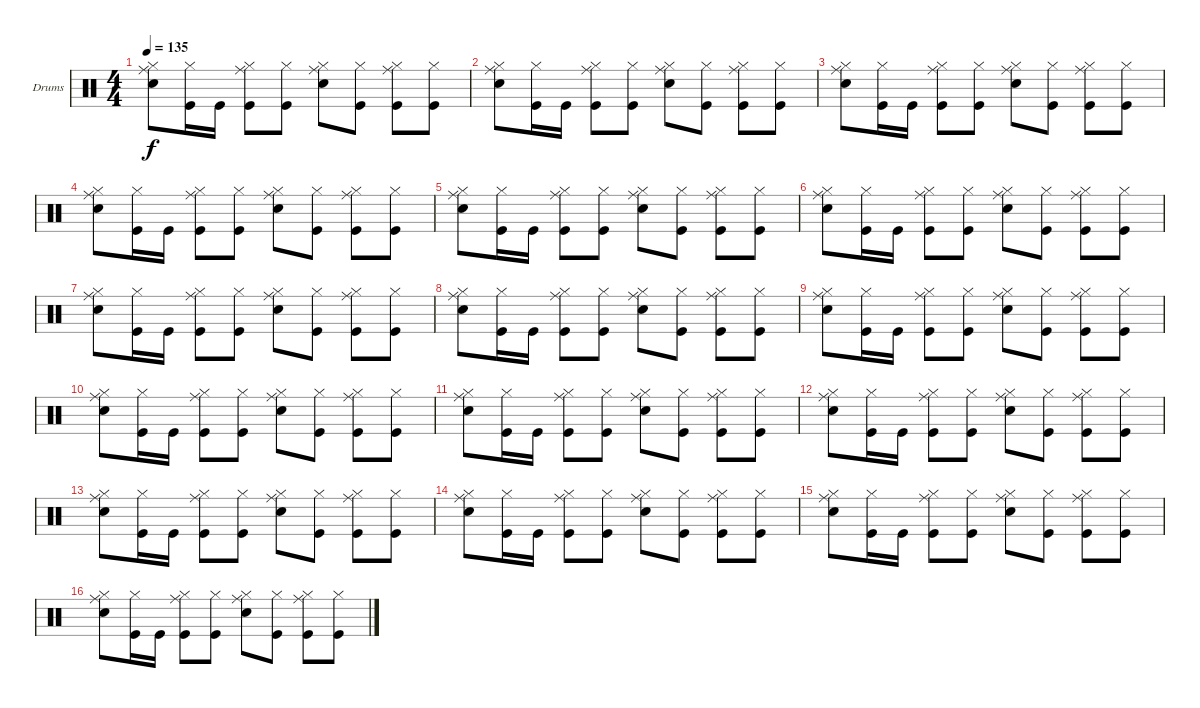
\defaultSystemsLayout 4
\bracketExtendMode groupsimilarinstruments
\firstSystemTrackNameOrientation horizontal
\otherSystemsTrackNameOrientation horizontal
\track ("Drumkit" "Drums") {instrument percussion}
\staff {score}
\articulation defaults
\ts (4 4)
\tempo 135
\clef neutral
\ks c
("Snare (hit) 2" "Hi-Hat (closed)" "Ride (middle)").8{dy f} ("Kick (hit)" "Hi-Hat (closed)").16 "Kick (hit)".16 ("Kick (hit)" "Hi-Hat (closed)" "Ride (middle)").8 ("Kick (hit)" "Hi-Hat (closed)").8 ("Snare (hit) 2" "Hi-Hat (closed)" "Ride (middle)").8 ("Kick (hit)" "Hi-Hat (closed)").8 ("Kick (hit)" "Hi-Hat (closed)" "Ride (middle)").8 ("Kick (hit)" "Hi-Hat (closed)").8 |
("Snare (hit) 2" "Hi-Hat (closed)" "Ride (middle)").8 ("Kick (hit)" "Hi-Hat (closed)").16 "Kick (hit)".16 ("Kick (hit)" "Hi-Hat (closed)" "Ride (middle)").8 ("Kick (hit)" "Hi-Hat (closed)").8 ("Snare (hit) 2" "Hi-Hat (closed)" "Ride (middle)").8 ("Kick (hit)" "Hi-Hat (closed)").8 ("Kick (hit)" "Hi-Hat (closed)" "Ride (middle)").8 ("Kick (hit)" "Hi-Hat (closed)").8 |
("Snare (hit) 2" "Hi-Hat (closed)" "Ride (middle)").8 ("Kick (hit)" "Hi-Hat (closed)").16 "Kick (hit)".16 ("Kick (hit)" "Hi-Hat (closed)" "Ride (middle)").8 ("Kick (hit)" "Hi-Hat (closed)").8 ("Snare (hit) 2" "Hi-Hat (closed)" "Ride (middle)").8 ("Kick (hit)" "Hi-Hat (closed)").8 ("Kick (hit)" "Hi-Hat (closed)" "Ride (middle)").8 ("Kick (hit)" "Hi-Hat (closed)").8 |
("Snare (hit) 2" "Hi-Hat (closed)" "Ride (middle)").8 ("Kick (hit)" "Hi-Hat (closed)").16 "Kick (hit)".16 ("Kick (hit)" "Hi-Hat (closed)" "Ride (middle)").8 ("Kick (hit)" "Hi-Hat (closed)").8 ("Snare (hit) 2" "Hi-Hat (closed)" "Ride (middle)").8 ("Kick (hit)" "Hi-Hat (closed)").8 ("Kick (hit)" "Hi-Hat (closed)" "Ride (middle)").8 ("Kick (hit)" "Hi-Hat (closed)").8 |
("Snare (hit) 2" "Hi-Hat (closed)" "Ride (middle)").8 ("Kick (hit)" "Hi-Hat (closed)").16 "Kick (hit)".16 ("Kick (hit)" "Hi-Hat (closed)" "Ride (middle)").8 ("Kick (hit)" "Hi-Hat (closed)").8 ("Snare (hit) 2" "Hi-Hat (closed)" "Ride (middle)").8 ("Kick (hit)" "Hi-Hat (closed)").8 ("Kick (hit)" "Hi-Hat (closed)" "Ride (middle)").8 ("Kick (hit)" "Hi-Hat (closed)").8 |
("Snare (hit) 2" "Hi-Hat (closed)" "Ride (middle)").8 ("Kick (hit)" "Hi-Hat (closed)").16 "Kick (hit)".16 ("Kick (hit)" "Hi-Hat (closed)" "Ride (middle)").8 ("Kick (hit)" "Hi-Hat (closed)").8 ("Snare (hit) 2" "Hi-Hat (closed)" "Ride (middle)").8 ("Kick (hit)" "Hi-Hat (closed)").8 ("Kick (hit)" "Hi-Hat (closed)" "Ride (middle)").8 ("Kick (hit)" "Hi-Hat (closed)").8 |
("Snare (hit) 2" "Hi-Hat (closed)" "Ride (middle)").8 ("Kick (hit)" "Hi-Hat (closed)").16 "Kick (hit)".16 ("Kick (hit)" "Hi-Hat (closed)" "Ride (middle)").8 ("Kick (hit)" "Hi-Hat (closed)").8 ("Snare (hit) 2" "Hi-Hat (closed)" "Ride (middle)").8 ("Kick (hit)" "Hi-Hat (closed)").8 ("Kick (hit)" "Hi-Hat (closed)" "Ride (middle)").8 ("Kick (hit)" "Hi-Hat (closed)").8 |
("Snare (hit) 2" "Hi-Hat (closed)" "Ride (middle)").8 ("Kick (hit)" "Hi-Hat (closed)").16 "Kick (hit)".16 ("Kick (hit)" "Hi-Hat (closed)" "Ride (middle)").8 ("Kick (hit)" "Hi-Hat (closed)").8 ("Snare (hit) 2" "Hi-Hat (closed)" "Ride (middle)").8 ("Kick (hit)" "Hi-Hat (closed)").8 ("Kick (hit)" "Hi-Hat (closed)" "Ride (middle)").8 ("Kick (hit)" "Hi-Hat (closed)").8 |
("Snare (hit) 2" "Hi-Hat (closed)" "Ride (middle)").8 ("Kick (hit)" "Hi-Hat (closed)").16 "Kick (hit)".16 ("Kick (hit)" "Hi-Hat (closed)" "Ride (middle)").8 ("Kick (hit)" "Hi-Hat (closed)").8 ("Snare (hit) 2" "Hi-Hat (closed)" "Ride (middle)").8 ("Kick (hit)" "Hi-Hat (closed)").8 ("Kick (hit)" "Hi-Hat (closed)" "Ride (middle)").8 ("Kick (hit)" "Hi-Hat (closed)").8 |
("Snare (hit) 2" "Hi-Hat (closed)" "Ride (middle)").8 ("Kick (hit)" "Hi-Hat (closed)").16 "Kick (hit)".16 ("Kick (hit)" "Hi-Hat (closed)" "Ride (middle)").8 ("Kick (hit)" "Hi-Hat (closed)").8 ("Snare (hit) 2" "Hi-Hat (closed)" "Ride (middle)").8 ("Kick (hit)" "Hi-Hat (closed)").8 ("Kick (hit)" "Hi-Hat (closed)" "Ride (middle)").8 ("Kick (hit)" "Hi-Hat (closed)").8 |
("Snare (hit) 2" "Hi-Hat (closed)" "Ride (middle)").8 ("Kick (hit)" "Hi-Hat (closed)").16 "Kick (hit)".16 ("Kick (hit)" "Hi-Hat (closed)" "Ride (middle)").8 ("Kick (hit)" "Hi-Hat (closed)").8 ("Snare (hit) 2" "Hi-Hat (closed)" "Ride (middle)").8 ("Kick (hit)" "Hi-Hat (closed)").8 ("Kick (hit)" "Hi-Hat (closed)" "Ride (middle)").8 ("Kick (hit)" "Hi-Hat (closed)").8 |
("Snare (hit) 2" "Hi-Hat (closed)" "Ride (middle)").8 ("Kick (hit)" "Hi-Hat (closed)").16 "Kick (hit)".16 ("Kick (hit)" "Hi-Hat (closed)" "Ride (middle)").8 ("Kick (hit)" "Hi-Hat (closed)").8 ("Snare (hit) 2" "Hi-Hat (closed)" "Ride (middle)").8 ("Kick (hit)" "Hi-Hat (closed)").8 ("Kick (hit)" "Hi-Hat (closed)" "Ride (middle)").8 ("Kick (hit)" "Hi-Hat (closed)").8 |
("Snare (hit) 2" "Hi-Hat (closed)" "Ride (middle)").8 ("Kick (hit)" "Hi-Hat (closed)").16 "Kick (hit)".16 ("Kick (hit)" "Hi-Hat (closed)" "Ride (middle)").8 ("Kick (hit)" "Hi-Hat (closed)").8 ("Snare (hit) 2" "Hi-Hat (closed)" "Ride (middle)").8 ("Kick (hit)" "Hi-Hat (closed)").8 ("Kick (hit)" "Hi-Hat (closed)" "Ride (middle)").8 ("Kick (hit)" "Hi-Hat (closed)").8 |
("Snare (hit) 2" "Hi-Hat (closed)" "Ride (middle)").8 ("Kick (hit)" "Hi-Hat (closed)").16 "Kick (hit)".16 ("Kick (hit)" "Hi-Hat (closed)" "Ride (middle)").8 ("Kick (hit)" "Hi-Hat (closed)").8 ("Snare (hit) 2" "Hi-Hat (closed)" "Ride (middle)").8 ("Kick (hit)" "Hi-Hat (closed)").8 ("Kick (hit)" "Hi-Hat (closed)" "Ride (middle)").8 ("Kick (hit)" "Hi-Hat (closed)").8 |
("Snare (hit) 2" "Hi-Hat (closed)" "Ride (middle)").8 ("Kick (hit)" "Hi-Hat (closed)").16 "Kick (hit)".16 ("Kick (hit)" "Hi-Hat (closed)" "Ride (middle)").8 ("Kick (hit)" "Hi-Hat (closed)").8 ("Snare (hit) 2" "Hi-Hat (closed)" "Ride (middle)").8 ("Kick (hit)" "Hi-Hat (closed)").8 ("Kick (hit)" "Hi-Hat (closed)" "Ride (middle)").8 ("Kick (hit)" "Hi-Hat (closed)").8 |
("Snare (hit) 2" "Hi-Hat (closed)" "Ride (middle)").8 ("Kick (hit)" "Hi-Hat (closed)").16 "Kick (hit)".16 ("Kick (hit)" "Hi-Hat (closed)" "Ride (middle)").8 ("Kick (hit)" "Hi-Hat (closed)").8 ("Snare (hit) 2" "Hi-Hat (closed)" "Ride (middle)").8 ("Kick (hit)" "Hi-Hat (closed)").8 ("Kick (hit)" "Hi-Hat (closed)" "Ride (middle)").8 ("Kick (hit)" "Hi-Hat (closed)").8
